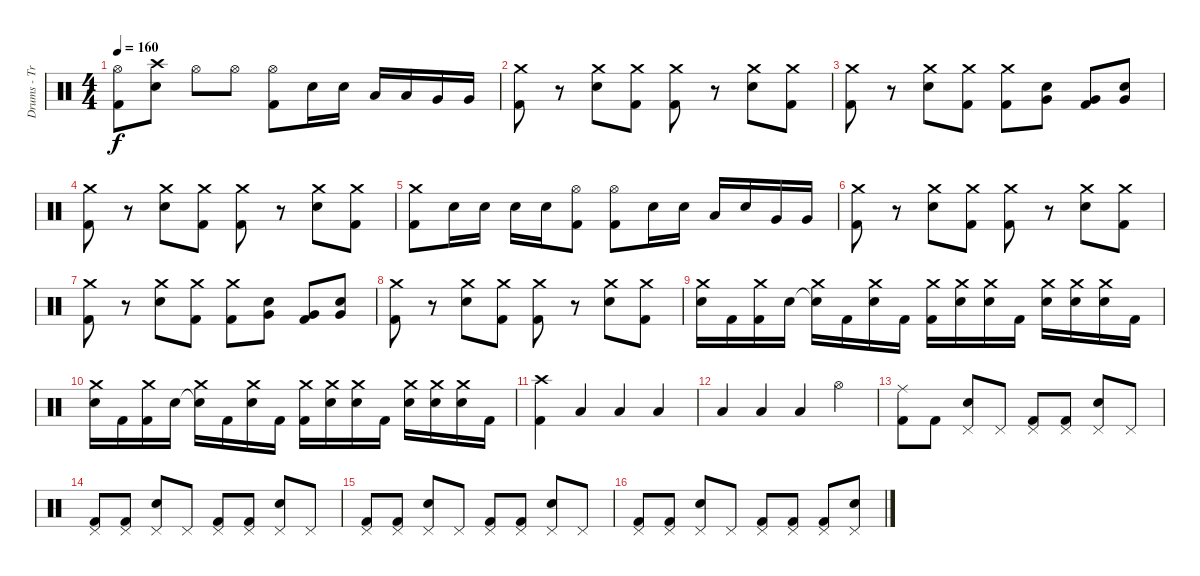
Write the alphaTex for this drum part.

\track ("Drums - Travis Barker" "Drums - Tr") {instrument percussion}
\staff {score}
\articulation defaults
\ts (4 4)
\tempo 160
\clef neutral
\ks c
("Hi-Hat (open)" "Kick (hit) 2").8{dy f} ("Crash high (hit)" "Snare (hit) 2").8 "Hi-Hat (open)".8 "Hi-Hat (open)".8 ("Hi-Hat (open)" "Kick (hit) 2").8 "Snare (hit) 2".16 "Snare (hit) 2".16 "Low Tom (hit)".16 "Low Tom (hit)".16 "Very Low Tom (hit)".16 "Very Low Tom (hit)".16 |
("Kick (hit) 2" "Crash medium (hit)").8 r.8 ("Snare (hit) 2" "Crash medium (hit)").8 ("Kick (hit) 2" "Crash medium (hit)").8 ("Kick (hit) 2" "Crash medium (hit)").8 r.8 ("Snare (hit) 2" "Crash medium (hit)").8 ("Kick (hit) 2" "Crash medium (hit)").8 |
("Kick (hit) 2" "Crash medium (hit)").8 r.8 ("Snare (hit) 2" "Crash medium (hit)").8 ("Kick (hit) 2" "Crash medium (hit)").8 ("Kick (hit) 2" "Crash medium (hit)").8 ("Snare (hit) 2" "Very Low Tom (hit)").8 ("Kick (hit) 2" "Very Low Tom (hit)").8 ("Snare (hit) 2" "Very Low Tom (hit)").8 |
("Kick (hit) 2" "Crash medium (hit)").8 r.8 ("Snare (hit) 2" "Crash medium (hit)").8 ("Kick (hit) 2" "Crash medium (hit)").8 ("Kick (hit) 2" "Crash medium (hit)").8 r.8 ("Snare (hit) 2" "Crash medium (hit)").8 ("Kick (hit) 2" "Crash medium (hit)").8 |
("Kick (hit) 2" "Crash medium (hit)").8 "Snare (hit) 2".16 "Snare (hit) 2".16 "Snare (hit) 2".16 "Snare (hit) 2".16 ("Hi-Hat (open)" "Kick (hit) 2").8 ("Hi-Hat (open)" "Kick (hit) 2").8 "Snare (hit) 2".16 "Snare (hit) 2".16 "Low Tom (hit)".16 "Snare (hit) 2".16 "Very Low Tom (hit)".16 "Very Low Tom (hit)".16 |
("Kick (hit) 2" "Crash medium (hit)").8 r.8 ("Snare (hit) 2" "Crash medium (hit)").8 ("Kick (hit) 2" "Crash medium (hit)").8 ("Kick (hit) 2" "Crash medium (hit)").8 r.8 ("Snare (hit) 2" "Crash medium (hit)").8 ("Kick (hit) 2" "Crash medium (hit)").8 |
("Kick (hit) 2" "Crash medium (hit)").8 r.8 ("Snare (hit) 2" "Crash medium (hit)").8 ("Kick (hit) 2" "Crash medium (hit)").8 ("Kick (hit) 2" "Crash medium (hit)").8 ("Snare (hit) 2" "Very Low Tom (hit)").8 ("Kick (hit) 2" "Very Low Tom (hit)").8 ("Snare (hit) 2" "Very Low Tom (hit)").8 |
("Kick (hit) 2" "Crash medium (hit)").8 r.8 ("Snare (hit) 2" "Crash medium (hit)").8 ("Kick (hit) 2" "Crash medium (hit)").8 ("Kick (hit) 2" "Crash medium (hit)").8 r.8 ("Snare (hit) 2" "Crash medium (hit)").8 ("Kick (hit) 2" "Crash medium (hit)").8 |
("Snare (hit) 2" "Crash medium (hit)").16 "Kick (hit) 2".16 ("Kick (hit) 2" "Crash medium (hit)").16 "Snare (hit) 2".16 ("Snare (hit)"{t} "Crash medium (hit)").16 "Kick (hit) 2".16 ("Snare (hit) 2" "Crash medium (hit)").16 "Kick (hit) 2".16 ("Kick (hit) 2" "Crash medium (hit)").16 ("Snare (hit) 2" "Crash medium (hit)").16 ("Snare (hit) 2" "Crash medium (hit)").16 "Kick (hit) 2".16 ("Snare (hit) 2" "Crash medium (hit)").16 ("Snare (hit) 2" "Crash medium (hit)").16 ("Snare (hit) 2" "Crash medium (hit)").16 "Kick (hit) 2".16 |
("Snare (hit) 2" "Crash medium (hit)").16 "Kick (hit) 2".16 ("Kick (hit) 2" "Crash medium (hit)").16 "Snare (hit) 2".16 ("Snare (hit)"{t} "Crash medium (hit)").16 "Kick (hit) 2".16 ("Snare (hit) 2" "Crash medium (hit)").16 "Kick (hit) 2".16 ("Kick (hit) 2" "Crash medium (hit)").16 ("Snare (hit) 2" "Crash medium (hit)").16 ("Snare (hit) 2" "Crash medium (hit)").16 "Kick (hit) 2".16 ("Snare (hit) 2" "Crash medium (hit)").16 ("Snare (hit) 2" "Crash medium (hit)").16 ("Snare (hit) 2" "Crash medium (hit)").16 "Kick (hit) 2".16 |
("Crash high (hit)" "Kick (hit) 2").4 "Low Tom (hit)".4 "Low Tom (hit)".4 "Low Tom (hit)".4 |
"Low Tom (hit)".4 "Low Tom (hit)".4 "Low Tom (hit)".4 "Hi-Hat (open)".4 |
("Ride (middle)" "Kick (hit) 2").8 "Kick (hit) 2".8 ("Pedal Hi-Hat (hit)" "Snare (hit) 2").8 "Pedal Hi-Hat (hit)".8 ("Pedal Hi-Hat (hit)" "Kick (hit) 2").8 ("Pedal Hi-Hat (hit)" "Kick (hit) 2").8 ("Pedal Hi-Hat (hit)" "Snare (hit) 2").8 "Pedal Hi-Hat (hit)".8 |
("Pedal Hi-Hat (hit)" "Kick (hit) 2").8 ("Pedal Hi-Hat (hit)" "Kick (hit) 2").8 ("Pedal Hi-Hat (hit)" "Snare (hit) 2").8 "Pedal Hi-Hat (hit)".8 ("Pedal Hi-Hat (hit)" "Kick (hit) 2").8 ("Pedal Hi-Hat (hit)" "Kick (hit) 2").8 ("Pedal Hi-Hat (hit)" "Snare (hit) 2").8 "Pedal Hi-Hat (hit)".8 |
("Pedal Hi-Hat (hit)" "Kick (hit) 2").8 ("Pedal Hi-Hat (hit)" "Kick (hit) 2").8 ("Pedal Hi-Hat (hit)" "Snare (hit) 2").8 "Pedal Hi-Hat (hit)".8 ("Pedal Hi-Hat (hit)" "Kick (hit) 2").8 ("Pedal Hi-Hat (hit)" "Kick (hit) 2").8 ("Pedal Hi-Hat (hit)" "Snare (hit) 2").8 "Pedal Hi-Hat (hit)".8 |
("Pedal Hi-Hat (hit)" "Kick (hit) 2").8 ("Pedal Hi-Hat (hit)" "Kick (hit) 2").8 ("Pedal Hi-Hat (hit)" "Snare (hit) 2").8 "Pedal Hi-Hat (hit)".8 ("Pedal Hi-Hat (hit)" "Kick (hit) 2").8 ("Pedal Hi-Hat (hit)" "Kick (hit) 2").8 ("Pedal Hi-Hat (hit)" "Kick (hit) 2").8 ("Pedal Hi-Hat (hit)" "Snare (hit) 2").8
